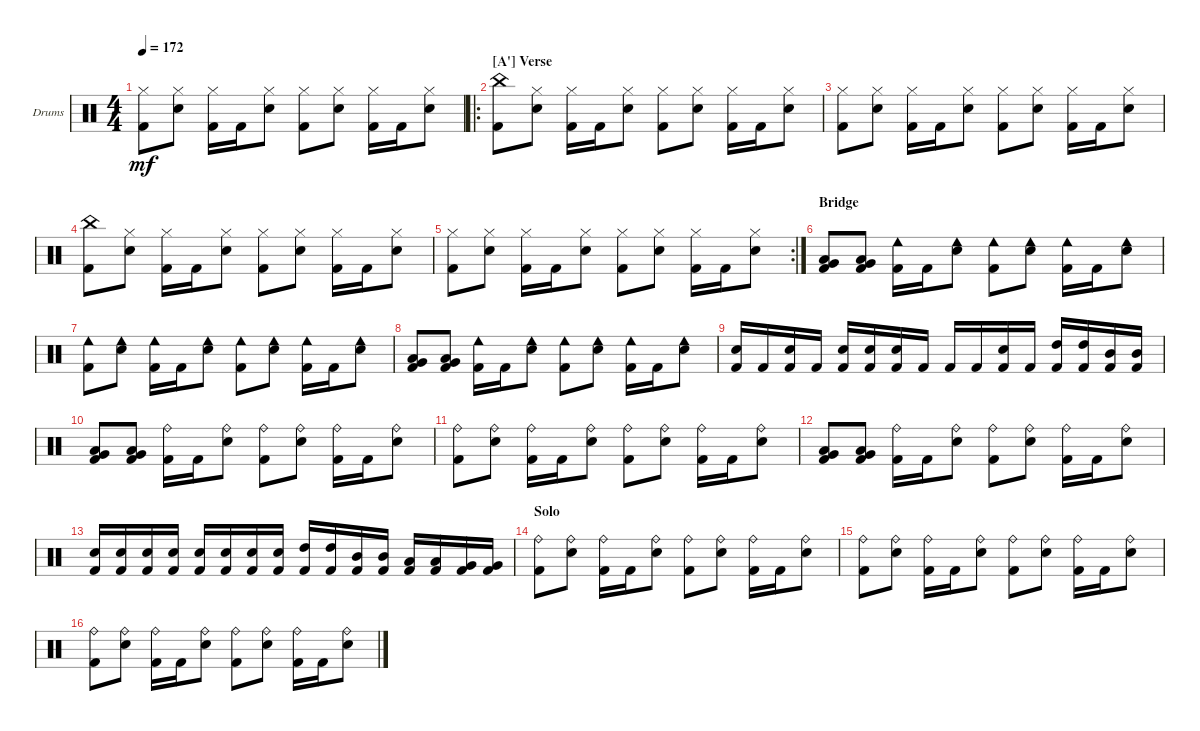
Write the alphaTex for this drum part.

\bracketExtendMode groupsimilarinstruments
\firstSystemTrackNameOrientation horizontal
\otherSystemsTrackNameOrientation horizontal
\track ("Drumkit" "Drums") {instrument percussion}
\staff {score}
\articulation defaults
\ts (4 4)
\tempo 172
\clef neutral
\ks c
("Kick (hit) 2" "Hi-Hat (closed)").8{dy mf} ("Snare (hit) 2" "Hi-Hat (closed)").8 ("Kick (hit) 2" "Hi-Hat (closed)").16 "Kick (hit) 2".16 ("Snare (hit) 2" "Hi-Hat (closed)").8 ("Kick (hit) 2" "Hi-Hat (closed)").8 ("Snare (hit) 2" "Hi-Hat (closed)").8 ("Kick (hit) 2" "Hi-Hat (closed)").16 "Kick (hit) 2".16 ("Snare (hit) 2" "Hi-Hat (closed)").8 |
\ro
\section ("A'" "Verse")
("Kick (hit) 2" "China (hit)").8 ("Snare (hit) 2" "Hi-Hat (closed)").8 ("Kick (hit) 2" "Hi-Hat (closed)").16 "Kick (hit) 2".16 ("Snare (hit) 2" "Hi-Hat (closed)").8 ("Kick (hit) 2" "Hi-Hat (closed)").8 ("Snare (hit) 2" "Hi-Hat (closed)").8 ("Kick (hit) 2" "Hi-Hat (closed)").16 "Kick (hit) 2".16 ("Snare (hit) 2" "Hi-Hat (closed)").8 |
("Kick (hit) 2" "Hi-Hat (closed)").8 ("Snare (hit) 2" "Hi-Hat (closed)").8 ("Kick (hit) 2" "Hi-Hat (closed)").16 "Kick (hit) 2".16 ("Snare (hit) 2" "Hi-Hat (closed)").8 ("Kick (hit) 2" "Hi-Hat (closed)").8 ("Snare (hit) 2" "Hi-Hat (closed)").8 ("Kick (hit) 2" "Hi-Hat (closed)").16 "Kick (hit) 2".16 ("Snare (hit) 2" "Hi-Hat (closed)").8 |
("Kick (hit) 2" "China (hit)").8 ("Snare (hit) 2" "Hi-Hat (closed)").8 ("Kick (hit) 2" "Hi-Hat (closed)").16 "Kick (hit) 2".16 ("Snare (hit) 2" "Hi-Hat (closed)").8 ("Kick (hit) 2" "Hi-Hat (closed)").8 ("Snare (hit) 2" "Hi-Hat (closed)").8 ("Kick (hit) 2" "Hi-Hat (closed)").16 "Kick (hit) 2".16 ("Snare (hit) 2" "Hi-Hat (closed)").8 |
\rc 2
("Kick (hit) 2" "Hi-Hat (closed)").8 ("Snare (hit) 2" "Hi-Hat (closed)").8 ("Kick (hit) 2" "Hi-Hat (closed)").16 "Kick (hit) 2".16 ("Snare (hit) 2" "Hi-Hat (closed)").8 ("Kick (hit) 2" "Hi-Hat (closed)").8 ("Snare (hit) 2" "Hi-Hat (closed)").8 ("Kick (hit) 2" "Hi-Hat (closed)").16 "Kick (hit) 2".16 ("Snare (hit) 2" "Hi-Hat (closed)").8 |
\section ("" "Bridge")
("Kick (hit) 2" "Very Low Tom (hit)" "Low Tom (hit)").8 ("Kick (hit) 2" "Very Low Tom (hit)" "Low Tom (hit)").8 ("Kick (hit) 2" "Cowbell low (hit)").16 "Kick (hit) 2".16 ("Snare (hit) 2" "Cowbell low (hit)").8 ("Kick (hit) 2" "Cowbell low (hit)").8 ("Snare (hit) 2" "Cowbell low (hit)").8 ("Kick (hit) 2" "Cowbell low (hit)").16 "Kick (hit) 2".16 ("Snare (hit) 2" "Cowbell low (hit)").8 |
("Kick (hit) 2" "Cowbell low (hit)").8 ("Snare (hit) 2" "Cowbell low (hit)").8 ("Kick (hit) 2" "Cowbell low (hit)").16 "Kick (hit) 2".16 ("Snare (hit) 2" "Cowbell low (hit)").8 ("Kick (hit) 2" "Cowbell low (hit)").8 ("Snare (hit) 2" "Cowbell low (hit)").8 ("Kick (hit) 2" "Cowbell low (hit)").16 "Kick (hit) 2".16 ("Snare (hit) 2" "Cowbell low (hit)").8 |
("Kick (hit) 2" "Very Low Tom (hit)" "Low Tom (hit)").8 ("Kick (hit) 2" "Very Low Tom (hit)" "Low Tom (hit)").8 ("Kick (hit) 2" "Cowbell low (hit)").16 "Kick (hit) 2".16 ("Snare (hit) 2" "Cowbell low (hit)").8 ("Kick (hit) 2" "Cowbell low (hit)").8 ("Snare (hit) 2" "Cowbell low (hit)").8 ("Kick (hit) 2" "Cowbell low (hit)").16 "Kick (hit) 2".16 ("Snare (hit) 2" "Cowbell low (hit)").8 |
("Kick (hit) 2" "Snare (hit) 2").16 "Kick (hit) 2".16 ("Snare (hit) 2" "Kick (hit) 2").16 "Kick (hit) 2".16 ("Snare (hit) 2" "Kick (hit) 2").16 ("Snare (hit) 2" "Kick (hit) 2").16 ("Kick (hit) 2" "Snare (hit) 2").16 "Kick (hit) 2".16 "Kick (hit) 2".16 "Kick (hit) 2".16 ("Snare (hit) 2" "Kick (hit) 2").16 "Kick (hit) 2".16 ("Kick (hit) 2" "High Tom (hit)").16 ("High Tom (hit)" "Kick (hit) 2").16 ("Kick (hit) 2" "Mid Tom (hit)").16 ("Mid Tom (hit)" "Kick (hit) 2").16 |
("Kick (hit) 2" "Very Low Tom (hit)" "Low Tom (hit)").8 ("Kick (hit) 2" "Very Low Tom (hit)" "Low Tom (hit)").8 ("Kick (hit) 2" "Ride (bell)").16 "Kick (hit) 2".16 ("Snare (hit) 2" "Ride (bell)").8 ("Kick (hit) 2" "Ride (bell)").8 ("Snare (hit) 2" "Ride (bell)").8 ("Kick (hit) 2" "Ride (bell)").16 "Kick (hit) 2".16 ("Snare (hit) 2" "Ride (bell)").8 |
("Kick (hit) 2" "Ride (bell)").8 ("Snare (hit) 2" "Ride (bell)").8 ("Kick (hit) 2" "Ride (bell)").16 "Kick (hit) 2".16 ("Snare (hit) 2" "Ride (bell)").8 ("Kick (hit) 2" "Ride (bell)").8 ("Snare (hit) 2" "Ride (bell)").8 ("Kick (hit) 2" "Ride (bell)").16 "Kick (hit) 2".16 ("Snare (hit) 2" "Ride (bell)").8 |
("Kick (hit) 2" "Very Low Tom (hit)" "Low Tom (hit)").8 ("Kick (hit) 2" "Very Low Tom (hit)" "Low Tom (hit)").8 ("Kick (hit) 2" "Ride (bell)").16 "Kick (hit) 2".16 ("Snare (hit) 2" "Ride (bell)").8 ("Kick (hit) 2" "Ride (bell)").8 ("Snare (hit) 2" "Ride (bell)").8 ("Kick (hit) 2" "Ride (bell)").16 "Kick (hit) 2".16 ("Snare (hit) 2" "Ride (bell)").8 |
("Kick (hit) 2" "Snare (hit) 2").16 ("Kick (hit) 2" "Snare (hit) 2").16 ("Snare (hit) 2" "Kick (hit) 2").16 ("Kick (hit) 2" "Snare (hit) 2").16 ("Snare (hit) 2" "Kick (hit) 2").16 ("Snare (hit) 2" "Kick (hit) 2").16 ("Kick (hit) 2" "Snare (hit) 2").16 ("Kick (hit) 2" "Snare (hit) 2").16 ("Kick (hit) 2" "High Tom (hit)").16 ("Kick (hit) 2" "High Tom (hit)").16 ("Kick (hit) 2" "Mid Tom (hit)").16 ("Kick (hit) 2" "Mid Tom (hit)").16 ("Kick (hit) 2" "Low Tom (hit)").16 ("Kick (hit) 2" "Low Tom (hit)").16 ("Kick (hit) 2" "Very Low Tom (hit)").16 ("Kick (hit) 2" "Very Low Tom (hit)").16 |
\section ("" "Solo")
("Kick (hit) 2" "Ride (bell)").8 ("Snare (hit) 2" "Ride (bell)").8 ("Kick (hit) 2" "Ride (bell)").16 "Kick (hit) 2".16 ("Snare (hit) 2" "Ride (bell)").8 ("Kick (hit) 2" "Ride (bell)").8 ("Snare (hit) 2" "Ride (bell)").8 ("Kick (hit) 2" "Ride (bell)").16 "Kick (hit) 2".16 ("Snare (hit) 2" "Ride (bell)").8 |
("Kick (hit) 2" "Ride (bell)").8 ("Snare (hit) 2" "Ride (bell)").8 ("Kick (hit) 2" "Ride (bell)").16 "Kick (hit) 2".16 ("Snare (hit) 2" "Ride (bell)").8 ("Kick (hit) 2" "Ride (bell)").8 ("Snare (hit) 2" "Ride (bell)").8 ("Kick (hit) 2" "Ride (bell)").16 "Kick (hit) 2".16 ("Snare (hit) 2" "Ride (bell)").8 |
("Kick (hit) 2" "Ride (bell)").8 ("Snare (hit) 2" "Ride (bell)").8 ("Kick (hit) 2" "Ride (bell)").16 "Kick (hit) 2".16 ("Snare (hit) 2" "Ride (bell)").8 ("Kick (hit) 2" "Ride (bell)").8 ("Snare (hit) 2" "Ride (bell)").8 ("Kick (hit) 2" "Ride (bell)").16 "Kick (hit) 2".16 ("Snare (hit) 2" "Ride (bell)").8
